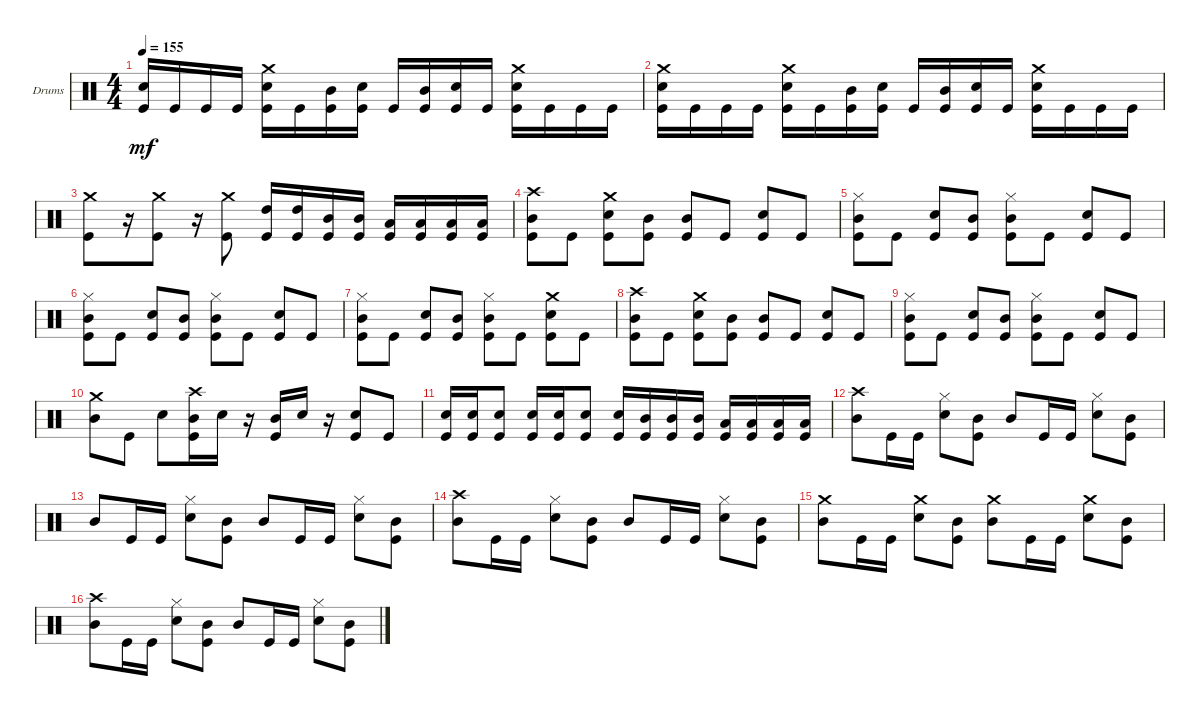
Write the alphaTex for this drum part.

\defaultSystemsLayout 4
\bracketExtendMode groupsimilarinstruments
\firstSystemTrackNameOrientation horizontal
\otherSystemsTrackNameOrientation horizontal
\track ("Drumkit" "Drums") {instrument percussion}
\staff {score}
\articulation defaults
\ts (4 4)
\tempo 155
\clef neutral
\ks c
("Kick (hit)" "Snare (hit) 2").16{dy mf} "Kick (hit)".16 "Kick (hit)".16 "Kick (hit)".16 ("Kick (hit)" "Snare (hit) 2" "Crash medium (hit)").16 "Kick (hit)".16 ("Kick (hit)" "Mid Tom (hit)").16 ("Kick (hit)" "Snare (hit) 2").16 "Kick (hit)".16 ("Kick (hit)" "Mid Tom (hit)").16 ("Kick (hit)" "Snare (hit) 2").16 "Kick (hit)".16 ("Kick (hit)" "Snare (hit) 2" "Crash medium (hit)").16 "Kick (hit)".16 "Kick (hit)".16 "Kick (hit)".16 |
("Kick (hit)" "Snare (hit) 2" "Crash medium (hit)").16 "Kick (hit)".16 "Kick (hit)".16 "Kick (hit)".16 ("Kick (hit)" "Snare (hit) 2" "Crash medium (hit)").16 "Kick (hit)".16 ("Kick (hit)" "Mid Tom (hit)").16 ("Kick (hit)" "Snare (hit) 2").16 "Kick (hit)".16 ("Kick (hit)" "Mid Tom (hit)").16 ("Kick (hit)" "Snare (hit) 2").16 "Kick (hit)".16 ("Kick (hit)" "Snare (hit) 2" "Crash medium (hit)").16 "Kick (hit)".16 "Kick (hit)".16 "Kick (hit)".16 |
("Kick (hit)" "Crash medium (hit)").8 r.16 ("Kick (hit)" "Crash medium (hit)").8 r.16 ("Kick (hit)" "Crash medium (hit)").8 ("Kick (hit)" "High Tom (hit)").16 ("Kick (hit)" "High Tom (hit)").16 ("Kick (hit)" "Mid Tom (hit)").16 ("Kick (hit)" "Mid Tom (hit)").16 ("Kick (hit)" "Low Tom (hit)").16 ("Kick (hit)" "Low Tom (hit)").16 ("Kick (hit)" "Low Tom (hit)").16 ("Kick (hit)" "Low Tom (hit)").16 |
("Kick (hit)" "Mid Tom (hit)" "Crash high (hit)").8 "Kick (hit)".8 ("Kick (hit)" "Snare (hit) 2" "Crash medium (hit)").8 ("Kick (hit)" "Mid Tom (hit)").8 ("Kick (hit)" "Mid Tom (hit)").8 "Kick (hit)".8 ("Kick (hit)" "Snare (hit) 2").8 "Kick (hit)".8 |
("Kick (hit)" "Mid Tom (hit)" "Hi-Hat (closed)").8 "Kick (hit)".8 ("Kick (hit)" "Snare (hit) 2").8 ("Kick (hit)" "Mid Tom (hit)").8 ("Kick (hit)" "Mid Tom (hit)" "Hi-Hat (closed)").8 "Kick (hit)".8 ("Kick (hit)" "Snare (hit) 2").8 "Kick (hit)".8 |
("Kick (hit)" "Mid Tom (hit)" "Hi-Hat (closed)").8 "Kick (hit)".8 ("Kick (hit)" "Snare (hit) 2").8 ("Kick (hit)" "Mid Tom (hit)").8 ("Kick (hit)" "Mid Tom (hit)" "Hi-Hat (closed)").8 "Kick (hit)".8 ("Kick (hit)" "Snare (hit) 2").8 "Kick (hit)".8 |
("Kick (hit)" "Mid Tom (hit)" "Hi-Hat (closed)").8 "Kick (hit)".8 ("Kick (hit)" "Snare (hit) 2").8 ("Kick (hit)" "Mid Tom (hit)").8 ("Kick (hit)" "Mid Tom (hit)" "Hi-Hat (closed)").8 "Kick (hit)".8 ("Kick (hit)" "Snare (hit) 2" "Crash medium (hit)").8 "Kick (hit)".8 |
("Kick (hit)" "Mid Tom (hit)" "Crash high (hit)").8 "Kick (hit)".8 ("Kick (hit)" "Snare (hit) 2" "Crash medium (hit)").8 ("Kick (hit)" "Mid Tom (hit)").8 ("Kick (hit)" "Mid Tom (hit)").8 "Kick (hit)".8 ("Kick (hit)" "Snare (hit) 2").8 "Kick (hit)".8 |
("Kick (hit)" "Mid Tom (hit)" "Hi-Hat (closed)").8 "Kick (hit)".8 ("Kick (hit)" "Snare (hit) 2").8 ("Kick (hit)" "Mid Tom (hit)").8 ("Kick (hit)" "Mid Tom (hit)" "Hi-Hat (closed)").8 "Kick (hit)".8 ("Kick (hit)" "Snare (hit) 2").8 "Kick (hit)".8 |
("Mid Tom (hit)" "Crash medium (hit)").8 "Kick (hit)".8 "Snare (hit) 2".8 ("Kick (hit)" "Mid Tom (hit)" "Crash high (hit)").16 "Snare (hit) 2".16 r.16 ("Kick (hit)" "Mid Tom (hit)").16 "Snare (hit) 2".16 r.16 ("Kick (hit)" "Snare (hit) 2").8 "Kick (hit)".8 |
("Kick (hit)" "Snare (hit) 2").16 ("Kick (hit)" "Snare (hit) 2").16 ("Kick (hit)" "Snare (hit) 2").8 ("Kick (hit)" "Snare (hit) 2").16 ("Kick (hit)" "Snare (hit) 2").16 ("Kick (hit)" "Snare (hit) 2").8 ("Kick (hit)" "Snare (hit) 2").16 ("Kick (hit)" "Mid Tom (hit)").16 ("Kick (hit)" "Mid Tom (hit)").16 ("Kick (hit)" "Mid Tom (hit)").16 ("Kick (hit)" "Low Tom (hit)").16 ("Kick (hit)" "Low Tom (hit)").16 ("Kick (hit)" "Low Tom (hit)").16 ("Kick (hit)" "Low Tom (hit)").16 |
("Mid Tom (hit)" "Crash high (hit)").8 "Kick (hit)".16 "Kick (hit)".16 ("Snare (hit) 2" "Hi-Hat (closed)").8 ("Kick (hit)" "Mid Tom (hit)").8 "Mid Tom (hit)".8 "Kick (hit)".16 "Kick (hit)".16 ("Snare (hit) 2" "Hi-Hat (closed)").8 ("Kick (hit)" "Mid Tom (hit)").8 |
"Mid Tom (hit)".8 "Kick (hit)".16 "Kick (hit)".16 ("Snare (hit) 2" "Hi-Hat (closed)").8 ("Kick (hit)" "Mid Tom (hit)").8 "Mid Tom (hit)".8 "Kick (hit)".16 "Kick (hit)".16 ("Snare (hit) 2" "Hi-Hat (closed)").8 ("Kick (hit)" "Mid Tom (hit)").8 |
("Mid Tom (hit)" "Crash high (hit)").8 "Kick (hit)".16 "Kick (hit)".16 ("Snare (hit) 2" "Hi-Hat (closed)").8 ("Kick (hit)" "Mid Tom (hit)").8 "Mid Tom (hit)".8 "Kick (hit)".16 "Kick (hit)".16 ("Snare (hit) 2" "Hi-Hat (closed)").8 ("Kick (hit)" "Mid Tom (hit)").8 |
("Mid Tom (hit)" "Crash medium (hit)").8 "Kick (hit)".16 "Kick (hit)".16 ("Snare (hit) 2" "Crash medium (hit)").8 ("Kick (hit)" "Mid Tom (hit)").8 ("Mid Tom (hit)" "Crash medium (hit)").8 "Kick (hit)".16 "Kick (hit)".16 ("Snare (hit) 2" "Crash medium (hit)").8 ("Kick (hit)" "Mid Tom (hit)").8 |
("Mid Tom (hit)" "Crash high (hit)").8 "Kick (hit)".16 "Kick (hit)".16 ("Snare (hit) 2" "Hi-Hat (closed)").8 ("Kick (hit)" "Mid Tom (hit)").8 "Mid Tom (hit)".8 "Kick (hit)".16 "Kick (hit)".16 ("Snare (hit) 2" "Hi-Hat (closed)").8 ("Kick (hit)" "Mid Tom (hit)").8
